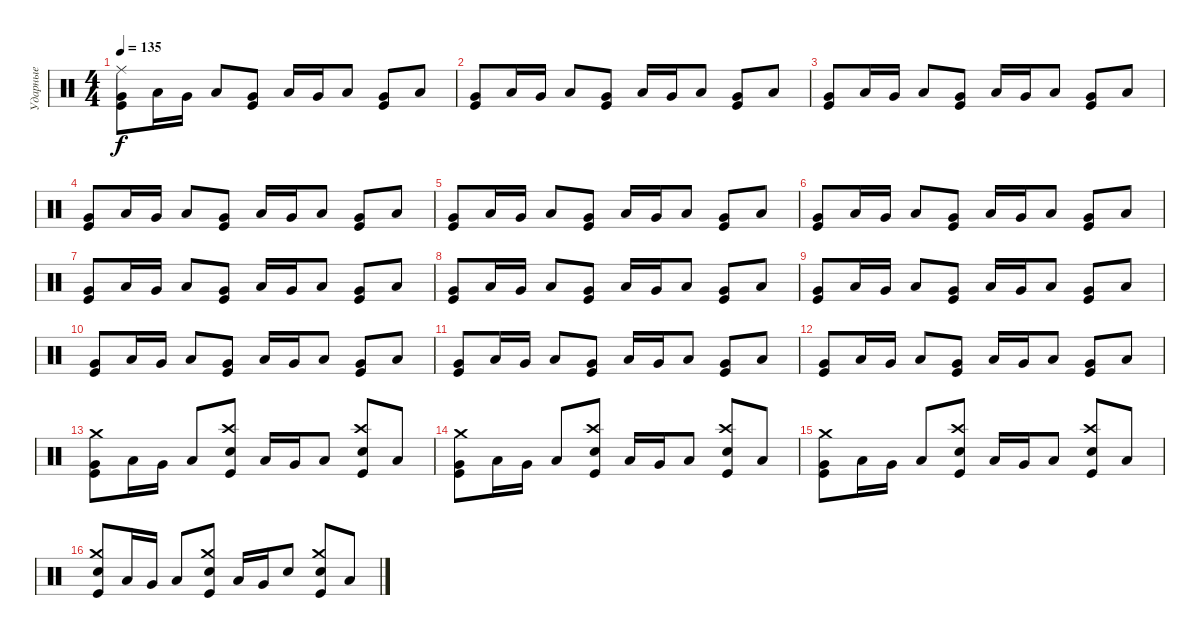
\track ("Ударные" "Ударные") {instrument percussion}
\staff {score}
\articulation defaults
\ts (4 4)
\tempo 135
\clef neutral
\ks c
("Ride (middle)" "Very Low Tom (hit)" "Kick (hit)").8{dy f} "Low Tom (hit)".16 "Very Low Tom (hit)".16 "Low Floor Tom (hit)".8 ("Very Low Tom (hit)" "Kick (hit)").8 "Low Tom (hit)".16 "Very Low Tom (hit)".16 "Low Floor Tom (hit)".8 ("Very Low Tom (hit)" "Kick (hit)").8 "Low Floor Tom (hit)".8 |
("Very Low Tom (hit)" "Kick (hit)").8 "Low Tom (hit)".16 "Very Low Tom (hit)".16 "Low Floor Tom (hit)".8 ("Very Low Tom (hit)" "Kick (hit)").8 "Low Tom (hit)".16 "Very Low Tom (hit)".16 "Low Floor Tom (hit)".8 ("Very Low Tom (hit)" "Kick (hit)").8 "Low Floor Tom (hit)".8 |
("Very Low Tom (hit)" "Kick (hit)").8 "Low Tom (hit)".16 "Very Low Tom (hit)".16 "Low Floor Tom (hit)".8 ("Very Low Tom (hit)" "Kick (hit)").8 "Low Tom (hit)".16 "Very Low Tom (hit)".16 "Low Floor Tom (hit)".8 ("Very Low Tom (hit)" "Kick (hit)").8 "Low Floor Tom (hit)".8 |
("Very Low Tom (hit)" "Kick (hit)").8 "Low Tom (hit)".16 "Very Low Tom (hit)".16 "Low Floor Tom (hit)".8 ("Very Low Tom (hit)" "Kick (hit)").8 "Low Tom (hit)".16 "Very Low Tom (hit)".16 "Low Floor Tom (hit)".8 ("Very Low Tom (hit)" "Kick (hit)").8 "Low Floor Tom (hit)".8 |
("Very Low Tom (hit)" "Kick (hit)").8 "Low Tom (hit)".16 "Very Low Tom (hit)".16 "Low Floor Tom (hit)".8 ("Very Low Tom (hit)" "Kick (hit)").8 "Low Tom (hit)".16 "Very Low Tom (hit)".16 "Low Floor Tom (hit)".8 ("Very Low Tom (hit)" "Kick (hit)").8 "Low Floor Tom (hit)".8 |
("Very Low Tom (hit)" "Kick (hit)").8 "Low Tom (hit)".16 "Very Low Tom (hit)".16 "Low Floor Tom (hit)".8 ("Very Low Tom (hit)" "Kick (hit)").8 "Low Tom (hit)".16 "Very Low Tom (hit)".16 "Low Floor Tom (hit)".8 ("Very Low Tom (hit)" "Kick (hit)").8 "Low Floor Tom (hit)".8 |
("Very Low Tom (hit)" "Kick (hit)").8 "Low Tom (hit)".16 "Very Low Tom (hit)".16 "Low Floor Tom (hit)".8 ("Very Low Tom (hit)" "Kick (hit)").8 "Low Tom (hit)".16 "Very Low Tom (hit)".16 "Low Floor Tom (hit)".8 ("Very Low Tom (hit)" "Kick (hit)").8 "Low Floor Tom (hit)".8 |
("Very Low Tom (hit)" "Kick (hit)").8 "Low Tom (hit)".16 "Very Low Tom (hit)".16 "Low Floor Tom (hit)".8 ("Very Low Tom (hit)" "Kick (hit)").8 "Low Tom (hit)".16 "Very Low Tom (hit)".16 "Low Floor Tom (hit)".8 ("Very Low Tom (hit)" "Kick (hit)").8 "Low Floor Tom (hit)".8 |
("Very Low Tom (hit)" "Kick (hit)").8 "Low Tom (hit)".16 "Very Low Tom (hit)".16 "Low Floor Tom (hit)".8 ("Very Low Tom (hit)" "Kick (hit)").8 "Low Tom (hit)".16 "Very Low Tom (hit)".16 "Low Floor Tom (hit)".8 ("Very Low Tom (hit)" "Kick (hit)").8 "Low Floor Tom (hit)".8 |
("Very Low Tom (hit)" "Kick (hit)").8 "Low Tom (hit)".16 "Very Low Tom (hit)".16 "Low Floor Tom (hit)".8 ("Very Low Tom (hit)" "Kick (hit)").8 "Low Tom (hit)".16 "Very Low Tom (hit)".16 "Low Floor Tom (hit)".8 ("Very Low Tom (hit)" "Kick (hit)").8 "Low Floor Tom (hit)".8 |
("Very Low Tom (hit)" "Kick (hit)").8 "Low Tom (hit)".16 "Very Low Tom (hit)".16 "Low Floor Tom (hit)".8 ("Very Low Tom (hit)" "Kick (hit)").8 "Low Tom (hit)".16 "Very Low Tom (hit)".16 "Low Floor Tom (hit)".8 ("Very Low Tom (hit)" "Kick (hit)").8 "Low Floor Tom (hit)".8 |
("Very Low Tom (hit)" "Kick (hit)").8 "Low Tom (hit)".16 "Very Low Tom (hit)".16 "Low Floor Tom (hit)".8 ("Very Low Tom (hit)" "Kick (hit)").8 "Low Tom (hit)".16 "Very Low Tom (hit)".16 "Low Floor Tom (hit)".8 ("Very Low Tom (hit)" "Kick (hit)").8 "Low Floor Tom (hit)".8 |
("Crash medium (hit)" "Very Low Tom (hit)" "Kick (hit)").8 "Low Tom (hit)".16 "Very Low Tom (hit)".16 "Low Floor Tom (hit)".8 ("Crash high (hit)" "Electric Snare (hit)" "Kick (hit)").8 "Low Tom (hit)".16 "Very Low Tom (hit)".16 "Low Floor Tom (hit)".8 ("Crash high (hit)" "Electric Snare (hit)" "Kick (hit)").8 "Low Floor Tom (hit)".8 |
("Crash medium (hit)" "Very Low Tom (hit)" "Kick (hit)").8 "Low Tom (hit)".16 "Very Low Tom (hit)".16 "Low Floor Tom (hit)".8 ("Crash high (hit)" "Electric Snare (hit)" "Kick (hit)").8 "Low Tom (hit)".16 "Very Low Tom (hit)".16 "Low Floor Tom (hit)".8 ("Crash high (hit)" "Electric Snare (hit)" "Kick (hit)").8 "Low Floor Tom (hit)".8 |
("Crash medium (hit)" "Very Low Tom (hit)" "Kick (hit)").8 "Low Tom (hit)".16 "Very Low Tom (hit)".16 "Low Floor Tom (hit)".8 ("Crash high (hit)" "Electric Snare (hit)" "Kick (hit)").8 "Low Tom (hit)".16 "Very Low Tom (hit)".16 "Low Floor Tom (hit)".8 ("Crash high (hit)" "Electric Snare (hit)" "Kick (hit)").8 "Low Floor Tom (hit)".8 |
("Crash medium (hit)" "Electric Snare (hit)" "Kick (hit)").8 "Low Tom (hit)".16 "Very Low Tom (hit)".16 "Low Floor Tom (hit)".8 ("Crash medium (hit)" "Electric Snare (hit)" "Kick (hit)").8 "Low Tom (hit)".16 "Very Low Tom (hit)".16 "Electric Snare (hit)".8 ("Crash medium (hit)" "Electric Snare (hit)" "Kick (hit)").8 "Low Floor Tom (hit)".8
